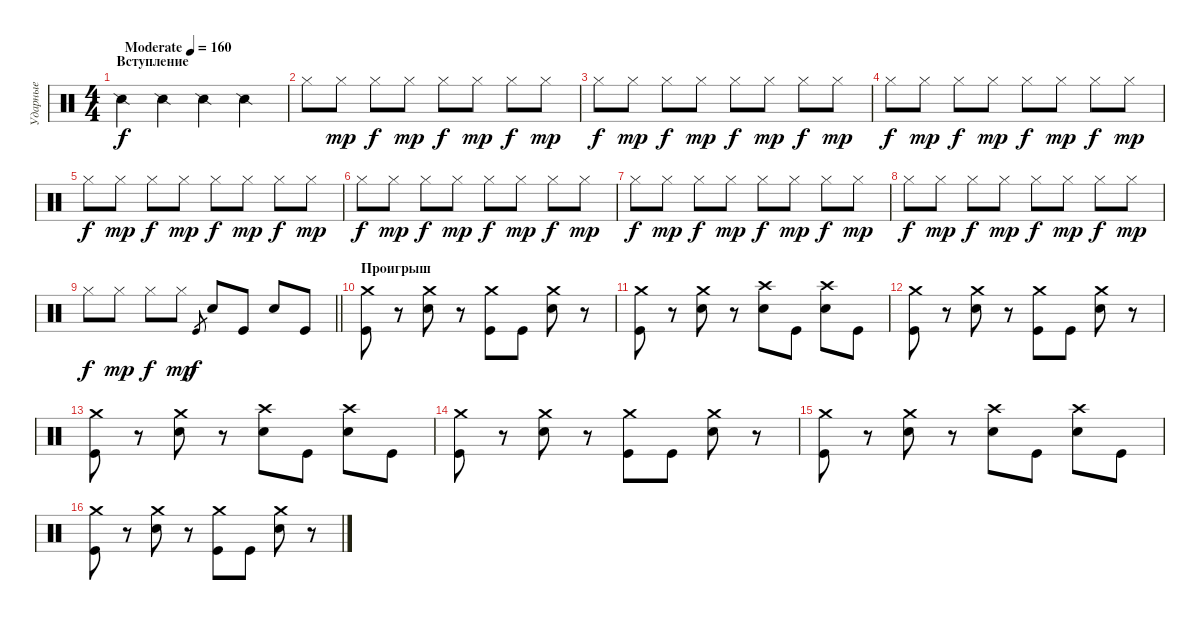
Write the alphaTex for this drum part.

\track ("Ударные" "Ударные") {instrument percussion}
\staff {score}
\articulation defaults
\ts (4 4)
\section ("" "Вступление")
\tempo (160 "Moderate")
\clef neutral
\ks c "Snare (side stick) 2".4{dy f} "Snare (side stick) 2".4 "Snare (side stick) 2".4 "Snare (side stick) 2".4
|
"Hi-Hat (closed)".8 "Hi-Hat (closed)".8{dy mp} "Hi-Hat (closed)".8{dy f} "Hi-Hat (closed)".8{dy mp} "Hi-Hat (closed)".8{dy f} "Hi-Hat (closed)".8{dy mp} "Hi-Hat (closed)".8{dy f} "Hi-Hat (closed)".8{dy mp} |
"Hi-Hat (closed)".8{dy f} "Hi-Hat (closed)".8{dy mp} "Hi-Hat (closed)".8{dy f} "Hi-Hat (closed)".8{dy mp} "Hi-Hat (closed)".8{dy f} "Hi-Hat (closed)".8{dy mp} "Hi-Hat (closed)".8{dy f} "Hi-Hat (closed)".8{dy mp} |
"Hi-Hat (closed)".8{dy f} "Hi-Hat (closed)".8{dy mp} "Hi-Hat (closed)".8{dy f} "Hi-Hat (closed)".8{dy mp} "Hi-Hat (closed)".8{dy f} "Hi-Hat (closed)".8{dy mp} "Hi-Hat (closed)".8{dy f} "Hi-Hat (closed)".8{dy mp} |
"Hi-Hat (closed)".8{dy f} "Hi-Hat (closed)".8{dy mp} "Hi-Hat (closed)".8{dy f} "Hi-Hat (closed)".8{dy mp} "Hi-Hat (closed)".8{dy f} "Hi-Hat (closed)".8{dy mp} "Hi-Hat (closed)".8{dy f} "Hi-Hat (closed)".8{dy mp} |
"Hi-Hat (closed)".8{dy f} "Hi-Hat (closed)".8{dy mp} "Hi-Hat (closed)".8{dy f} "Hi-Hat (closed)".8{dy mp} "Hi-Hat (closed)".8{dy f} "Hi-Hat (closed)".8{dy mp} "Hi-Hat (closed)".8{dy f} "Hi-Hat (closed)".8{dy mp} |
"Hi-Hat (closed)".8{dy f} "Hi-Hat (closed)".8{dy mp} "Hi-Hat (closed)".8{dy f} "Hi-Hat (closed)".8{dy mp} "Hi-Hat (closed)".8{dy f} "Hi-Hat (closed)".8{dy mp} "Hi-Hat (closed)".8{dy f} "Hi-Hat (closed)".8{dy mp} |
"Hi-Hat (closed)".8{dy f} "Hi-Hat (closed)".8{dy mp} "Hi-Hat (closed)".8{dy f} "Hi-Hat (closed)".8{dy mp} "Hi-Hat (closed)".8{dy f} "Hi-Hat (closed)".8{dy mp} "Hi-Hat (closed)".8{dy f} "Hi-Hat (closed)".8{dy mp} |
\barLineRight lightlight "Hi-Hat (closed)".8{dy f} "Hi-Hat (closed)".8{dy mp} "Hi-Hat (closed)".8{dy f} "Hi-Hat (closed)".8{dy mp} "Kick (hit)".8{gr dy f} "Electric Snare (hit)".8 "Kick (hit)".8 "Electric Snare (hit)".8 "Kick (hit)".8
|
\section ("" "Проигрыш")
("Crash medium (hit)" "Kick (hit)").8 r.8 ("Crash medium (hit)" "Electric Snare (hit)").8 r.8 ("Crash medium (hit)" "Kick (hit)").8 "Kick (hit)".8 ("Crash medium (hit)" "Electric Snare (hit)").8 r.8 |
("Crash medium (hit)" "Kick (hit)").8 r.8 ("Crash medium (hit)" "Electric Snare (hit)").8 r.8 ("Crash high (hit)" "Electric Snare (hit)").8 "Kick (hit)".8 ("Crash high (hit)" "Electric Snare (hit)").8 "Kick (hit)".8 |
("Crash medium (hit)" "Kick (hit)").8 r.8 ("Crash medium (hit)" "Electric Snare (hit)").8 r.8 ("Crash medium (hit)" "Kick (hit)").8 "Kick (hit)".8 ("Crash medium (hit)" "Electric Snare (hit)").8 r.8 |
("Crash medium (hit)" "Kick (hit)").8 r.8 ("Crash medium (hit)" "Electric Snare (hit)").8 r.8 ("Crash high (hit)" "Electric Snare (hit)").8 "Kick (hit)".8 ("Crash high (hit)" "Electric Snare (hit)").8 "Kick (hit)".8 |
("Crash medium (hit)" "Kick (hit)").8 r.8 ("Crash medium (hit)" "Electric Snare (hit)").8 r.8 ("Crash medium (hit)" "Kick (hit)").8 "Kick (hit)".8 ("Crash medium (hit)" "Electric Snare (hit)").8 r.8 |
("Crash medium (hit)" "Kick (hit)").8 r.8 ("Crash medium (hit)" "Electric Snare (hit)").8 r.8 ("Crash high (hit)" "Electric Snare (hit)").8 "Kick (hit)".8 ("Crash high (hit)" "Electric Snare (hit)").8 "Kick (hit)".8 |
("Crash medium (hit)" "Kick (hit)").8 r.8 ("Crash medium (hit)" "Electric Snare (hit)").8 r.8 ("Crash medium (hit)" "Kick (hit)").8 "Kick (hit)".8 ("Crash medium (hit)" "Electric Snare (hit)").8 r.8
